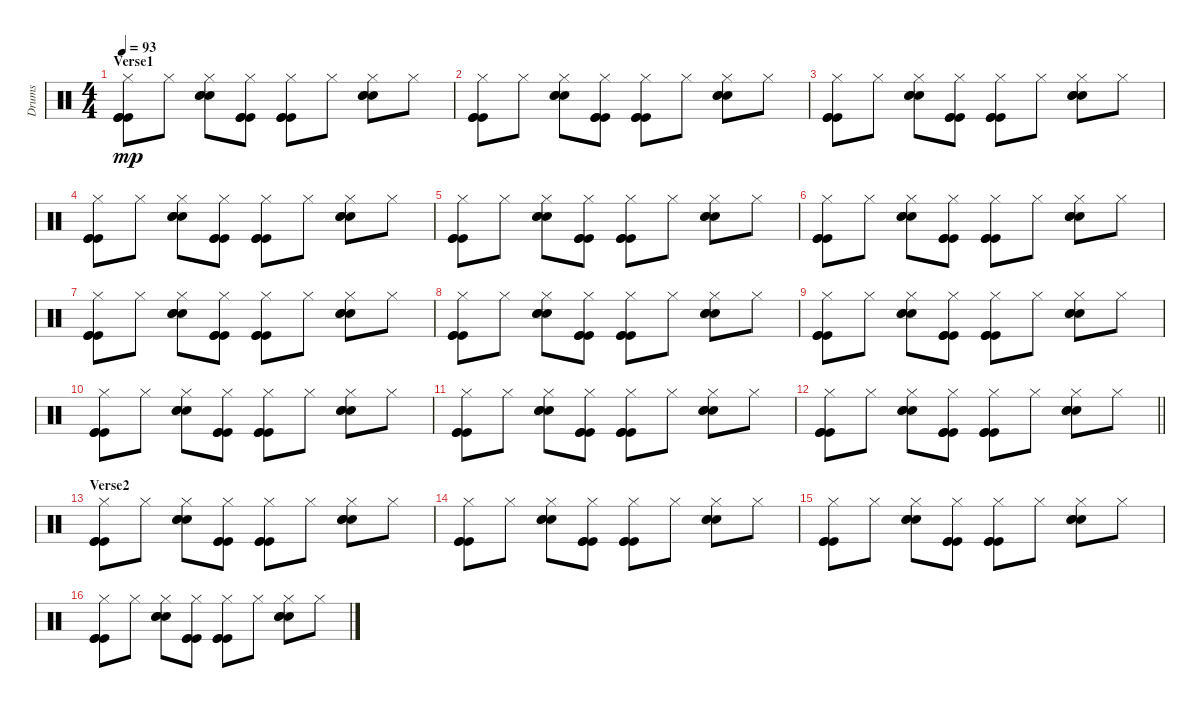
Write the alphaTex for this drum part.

\track ("Drums" "Drums") {instrument percussion}
\staff {score}
\articulation defaults
\ts (4 4)
\section ("" "Verse1")
\tempo 93
\clef neutral
\ks c
("Kick (hit)" "Kick (hit)" "Kick (hit)" "Hi-Hat (closed)").8{dy mp} "Hi-Hat (closed)".8 ("Snare (hit) 2" "Snare (hit) 2" "Snare (hit) 2" "Hi-Hat (closed)").8 ("Kick (hit)" "Kick (hit)" "Kick (hit)" "Hi-Hat (closed)").8 ("Kick (hit)" "Kick (hit)" "Kick (hit)" "Hi-Hat (closed)").8 "Hi-Hat (closed)".8 ("Snare (hit) 2" "Snare (hit) 2" "Snare (hit) 2" "Hi-Hat (closed)").8 "Hi-Hat (closed)".8 |
("Kick (hit)" "Kick (hit)" "Kick (hit)" "Hi-Hat (closed)").8 "Hi-Hat (closed)".8 ("Snare (hit) 2" "Snare (hit) 2" "Snare (hit) 2" "Hi-Hat (closed)").8 ("Kick (hit)" "Kick (hit)" "Kick (hit)" "Hi-Hat (closed)").8 ("Kick (hit)" "Kick (hit)" "Kick (hit)" "Hi-Hat (closed)").8 "Hi-Hat (closed)".8 ("Snare (hit) 2" "Snare (hit) 2" "Snare (hit) 2" "Hi-Hat (closed)").8 "Hi-Hat (closed)".8 |
("Kick (hit)" "Kick (hit)" "Kick (hit)" "Hi-Hat (closed)").8 "Hi-Hat (closed)".8 ("Snare (hit) 2" "Snare (hit) 2" "Snare (hit) 2" "Hi-Hat (closed)").8 ("Kick (hit)" "Kick (hit)" "Kick (hit)" "Hi-Hat (closed)").8 ("Kick (hit)" "Kick (hit)" "Kick (hit)" "Hi-Hat (closed)").8 "Hi-Hat (closed)".8 ("Snare (hit) 2" "Snare (hit) 2" "Snare (hit) 2" "Hi-Hat (closed)").8 "Hi-Hat (closed)".8 |
("Kick (hit)" "Kick (hit)" "Kick (hit)" "Hi-Hat (closed)").8 "Hi-Hat (closed)".8 ("Snare (hit) 2" "Snare (hit) 2" "Snare (hit) 2" "Hi-Hat (closed)").8 ("Kick (hit)" "Kick (hit)" "Kick (hit)" "Hi-Hat (closed)").8 ("Kick (hit)" "Kick (hit)" "Kick (hit)" "Hi-Hat (closed)").8 "Hi-Hat (closed)".8 ("Snare (hit) 2" "Snare (hit) 2" "Snare (hit) 2" "Hi-Hat (closed)").8 "Hi-Hat (closed)".8 |
("Kick (hit)" "Kick (hit)" "Kick (hit)" "Hi-Hat (closed)").8 "Hi-Hat (closed)".8 ("Snare (hit) 2" "Snare (hit) 2" "Snare (hit) 2" "Hi-Hat (closed)").8 ("Kick (hit)" "Kick (hit)" "Kick (hit)" "Hi-Hat (closed)").8 ("Kick (hit)" "Kick (hit)" "Kick (hit)" "Hi-Hat (closed)").8 "Hi-Hat (closed)".8 ("Snare (hit) 2" "Snare (hit) 2" "Snare (hit) 2" "Hi-Hat (closed)").8 "Hi-Hat (closed)".8 |
("Kick (hit)" "Kick (hit)" "Kick (hit)" "Hi-Hat (closed)").8 "Hi-Hat (closed)".8 ("Snare (hit) 2" "Snare (hit) 2" "Snare (hit) 2" "Hi-Hat (closed)").8 ("Kick (hit)" "Kick (hit)" "Kick (hit)" "Hi-Hat (closed)").8 ("Kick (hit)" "Kick (hit)" "Kick (hit)" "Hi-Hat (closed)").8 "Hi-Hat (closed)".8 ("Snare (hit) 2" "Snare (hit) 2" "Snare (hit) 2" "Hi-Hat (closed)").8 "Hi-Hat (closed)".8 |
("Kick (hit)" "Kick (hit)" "Kick (hit)" "Hi-Hat (closed)").8 "Hi-Hat (closed)".8 ("Snare (hit) 2" "Snare (hit) 2" "Snare (hit) 2" "Hi-Hat (closed)").8 ("Kick (hit)" "Kick (hit)" "Kick (hit)" "Hi-Hat (closed)").8 ("Kick (hit)" "Kick (hit)" "Kick (hit)" "Hi-Hat (closed)").8 "Hi-Hat (closed)".8 ("Snare (hit) 2" "Snare (hit) 2" "Snare (hit) 2" "Hi-Hat (closed)").8 "Hi-Hat (closed)".8 |
("Kick (hit)" "Kick (hit)" "Kick (hit)" "Hi-Hat (closed)").8 "Hi-Hat (closed)".8 ("Snare (hit) 2" "Snare (hit) 2" "Snare (hit) 2" "Hi-Hat (closed)").8 ("Kick (hit)" "Kick (hit)" "Kick (hit)" "Hi-Hat (closed)").8 ("Kick (hit)" "Kick (hit)" "Kick (hit)" "Hi-Hat (closed)").8 "Hi-Hat (closed)".8 ("Snare (hit) 2" "Snare (hit) 2" "Snare (hit) 2" "Hi-Hat (closed)").8 "Hi-Hat (closed)".8 |
("Kick (hit)" "Kick (hit)" "Kick (hit)" "Hi-Hat (closed)").8 "Hi-Hat (closed)".8 ("Snare (hit) 2" "Snare (hit) 2" "Snare (hit) 2" "Hi-Hat (closed)").8 ("Kick (hit)" "Kick (hit)" "Kick (hit)" "Hi-Hat (closed)").8 ("Kick (hit)" "Kick (hit)" "Kick (hit)" "Hi-Hat (closed)").8 "Hi-Hat (closed)".8 ("Snare (hit) 2" "Snare (hit) 2" "Snare (hit) 2" "Hi-Hat (closed)").8 "Hi-Hat (closed)".8 |
("Kick (hit)" "Kick (hit)" "Kick (hit)" "Hi-Hat (closed)").8 "Hi-Hat (closed)".8 ("Snare (hit) 2" "Snare (hit) 2" "Snare (hit) 2" "Hi-Hat (closed)").8 ("Kick (hit)" "Kick (hit)" "Kick (hit)" "Hi-Hat (closed)").8 ("Kick (hit)" "Kick (hit)" "Kick (hit)" "Hi-Hat (closed)").8 "Hi-Hat (closed)".8 ("Snare (hit) 2" "Snare (hit) 2" "Snare (hit) 2" "Hi-Hat (closed)").8 "Hi-Hat (closed)".8 |
("Kick (hit)" "Kick (hit)" "Kick (hit)" "Hi-Hat (closed)").8 "Hi-Hat (closed)".8 ("Snare (hit) 2" "Snare (hit) 2" "Snare (hit) 2" "Hi-Hat (closed)").8 ("Kick (hit)" "Kick (hit)" "Kick (hit)" "Hi-Hat (closed)").8 ("Kick (hit)" "Kick (hit)" "Kick (hit)" "Hi-Hat (closed)").8 "Hi-Hat (closed)".8 ("Snare (hit) 2" "Snare (hit) 2" "Snare (hit) 2" "Hi-Hat (closed)").8 "Hi-Hat (closed)".8 |
\barLineRight lightlight
("Kick (hit)" "Kick (hit)" "Kick (hit)" "Hi-Hat (closed)").8 "Hi-Hat (closed)".8 ("Snare (hit) 2" "Snare (hit) 2" "Snare (hit) 2" "Hi-Hat (closed)").8 ("Kick (hit)" "Kick (hit)" "Kick (hit)" "Hi-Hat (closed)").8 ("Kick (hit)" "Kick (hit)" "Kick (hit)" "Hi-Hat (closed)").8 "Hi-Hat (closed)".8 ("Snare (hit) 2" "Snare (hit) 2" "Snare (hit) 2" "Hi-Hat (closed)").8 "Hi-Hat (closed)".8 |
\section ("" "Verse2")
("Kick (hit)" "Kick (hit)" "Kick (hit)" "Hi-Hat (closed)").8 "Hi-Hat (closed)".8 ("Snare (hit) 2" "Snare (hit) 2" "Snare (hit) 2" "Hi-Hat (closed)").8 ("Kick (hit)" "Kick (hit)" "Kick (hit)" "Hi-Hat (closed)").8 ("Kick (hit)" "Kick (hit)" "Kick (hit)" "Hi-Hat (closed)").8 "Hi-Hat (closed)".8 ("Snare (hit) 2" "Snare (hit) 2" "Snare (hit) 2" "Hi-Hat (closed)").8 "Hi-Hat (closed)".8 |
("Kick (hit)" "Kick (hit)" "Kick (hit)" "Hi-Hat (closed)").8 "Hi-Hat (closed)".8 ("Snare (hit) 2" "Snare (hit) 2" "Snare (hit) 2" "Hi-Hat (closed)").8 ("Kick (hit)" "Kick (hit)" "Kick (hit)" "Hi-Hat (closed)").8 ("Kick (hit)" "Kick (hit)" "Kick (hit)" "Hi-Hat (closed)").8 "Hi-Hat (closed)".8 ("Snare (hit) 2" "Snare (hit) 2" "Snare (hit) 2" "Hi-Hat (closed)").8 "Hi-Hat (closed)".8 |
("Kick (hit)" "Kick (hit)" "Kick (hit)" "Hi-Hat (closed)").8 "Hi-Hat (closed)".8 ("Snare (hit) 2" "Snare (hit) 2" "Snare (hit) 2" "Hi-Hat (closed)").8 ("Kick (hit)" "Kick (hit)" "Kick (hit)" "Hi-Hat (closed)").8 ("Kick (hit)" "Kick (hit)" "Kick (hit)" "Hi-Hat (closed)").8 "Hi-Hat (closed)".8 ("Snare (hit) 2" "Snare (hit) 2" "Snare (hit) 2" "Hi-Hat (closed)").8 "Hi-Hat (closed)".8 |
("Kick (hit)" "Kick (hit)" "Kick (hit)" "Hi-Hat (closed)").8 "Hi-Hat (closed)".8 ("Snare (hit) 2" "Snare (hit) 2" "Snare (hit) 2" "Hi-Hat (closed)").8 ("Kick (hit)" "Kick (hit)" "Kick (hit)" "Hi-Hat (closed)").8 ("Kick (hit)" "Kick (hit)" "Kick (hit)" "Hi-Hat (closed)").8 "Hi-Hat (closed)".8 ("Snare (hit) 2" "Snare (hit) 2" "Snare (hit) 2" "Hi-Hat (closed)").8 "Hi-Hat (closed)".8
